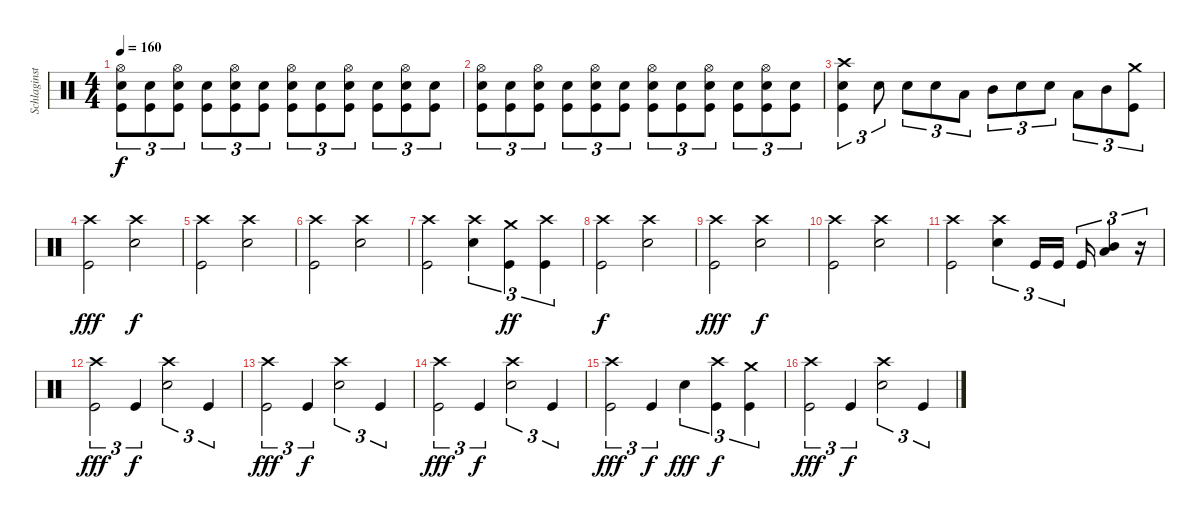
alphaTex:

\track ("Schlaginstrumente - Auswahl" "Schlaginst") {instrument percussion}
\staff {score}
\articulation defaults
\ts (4 4)
\tempo 160
\clef neutral
\ks c
("Hi-Hat (open)" "Electric Snare (hit)" "Kick (hit)").8{tu (3 2) dy f} ("Electric Snare (hit)" "Kick (hit)").8{tu (3 2)} ("Hi-Hat (open)" "Electric Snare (hit)" "Kick (hit)").8{tu (3 2)} ("Electric Snare (hit)" "Kick (hit)").8{tu (3 2)} ("Hi-Hat (open)" "Electric Snare (hit)" "Kick (hit)").8{tu (3 2)} ("Electric Snare (hit)" "Kick (hit)").8{tu (3 2)} ("Hi-Hat (open)" "Electric Snare (hit)" "Kick (hit)").8{tu (3 2)} ("Electric Snare (hit)" "Kick (hit)").8{tu (3 2)} ("Hi-Hat (open)" "Electric Snare (hit)" "Kick (hit)").8{tu (3 2)} ("Electric Snare (hit)" "Kick (hit)").8{tu (3 2)} ("Hi-Hat (open)" "Electric Snare (hit)" "Kick (hit)").8{tu (3 2)} ("Electric Snare (hit)" "Kick (hit)").8{tu (3 2)} |
("Hi-Hat (open)" "Electric Snare (hit)" "Kick (hit)").8{tu (3 2)} ("Electric Snare (hit)" "Kick (hit)").8{tu (3 2)} ("Hi-Hat (open)" "Electric Snare (hit)" "Kick (hit)").8{tu (3 2)} ("Electric Snare (hit)" "Kick (hit)").8{tu (3 2)} ("Hi-Hat (open)" "Electric Snare (hit)" "Kick (hit)").8{tu (3 2)} ("Electric Snare (hit)" "Kick (hit)").8{tu (3 2)} ("Hi-Hat (open)" "Electric Snare (hit)" "Kick (hit)").8{tu (3 2)} ("Electric Snare (hit)" "Kick (hit)").8{tu (3 2)} ("Hi-Hat (open)" "Electric Snare (hit)" "Kick (hit)").8{tu (3 2)} ("Electric Snare (hit)" "Kick (hit)").8{tu (3 2)} ("Hi-Hat (open)" "Electric Snare (hit)" "Kick (hit)").8{tu (3 2)} ("Electric Snare (hit)" "Kick (hit)").8{tu (3 2)} |
("Crash high (hit)" "Kick (hit)" "Electric Snare (hit)").4{tu (3 2)} "Electric Snare (hit)".8{tu (3 2)} "Electric Snare (hit)".8{tu (3 2)} "Electric Snare (hit)".8{tu (3 2)} "Low Tom (hit)".8{tu (3 2)} "Mid Tom (hit)".8{tu (3 2)} "Electric Snare (hit)".8{tu (3 2)} "Electric Snare (hit)".8{tu (3 2)} "Low Tom (hit)".8{tu (3 2)} "Mid Tom (hit)".8{tu (3 2)} ("Crash medium (hit)" "Kick (hit)").8{tu (3 2)} |
("Crash high (hit)" "Kick (hit)").2{dy fff} ("Crash high (hit)" "Electric Snare (hit)").2{dy f} |
("Crash high (hit)" "Kick (hit)").2 ("Crash high (hit)" "Electric Snare (hit)").2 |
("Crash high (hit)" "Kick (hit)").2 ("Crash high (hit)" "Electric Snare (hit)").2 |
("Crash high (hit)" "Kick (hit)").2 ("Crash high (hit)" "Electric Snare (hit)").4{tu (3 2)} ("Crash medium (hit)" "Kick (hit)").4{tu (3 2) dy ff} ("Crash high (hit)" "Kick (hit)").4{tu (3 2)} |
("Crash high (hit)" "Kick (hit)").2{dy f} ("Crash high (hit)" "Electric Snare (hit)").2 |
("Crash high (hit)" "Kick (hit)").2{dy fff} ("Crash high (hit)" "Electric Snare (hit)").2{dy f} |
("Crash high (hit)" "Kick (hit)").2 ("Crash high (hit)" "Electric Snare (hit)").2 |
("Crash high (hit)" "Kick (hit)").2 ("Crash high (hit)" "Electric Snare (hit)").4{tu (3 2)} "Kick (hit)".16{tu (3 2)} "Kick (hit)".16{tu (3 2)} "Kick (hit)".16{tu (3 2)} ("Mid Tom (hit)" "Low Tom (hit)").4{tu (3 2)} r.16{tu (3 2)} |
("Crash high (hit)" "Kick (hit)").2{tu (3 2) dy fff} "Kick (hit)".4{tu (3 2) dy f} ("Crash high (hit)" "Electric Snare (hit)").2{tu (3 2)} "Kick (hit)".4{tu (3 2)} |
("Crash high (hit)" "Kick (hit)").2{tu (3 2) dy fff} "Kick (hit)".4{tu (3 2) dy f} ("Crash high (hit)" "Electric Snare (hit)").2{tu (3 2)} "Kick (hit)".4{tu (3 2)} |
("Crash high (hit)" "Kick (hit)").2{tu (3 2) dy fff} "Kick (hit)".4{tu (3 2) dy f} ("Crash high (hit)" "Electric Snare (hit)").2{tu (3 2)} "Kick (hit)".4{tu (3 2)} |
("Crash high (hit)" "Kick (hit)").2{tu (3 2) dy fff} "Kick (hit)".4{tu (3 2) dy f} "Electric Snare (hit)".4{tu (3 2) dy fff} ("Crash high (hit)" "Kick (hit)").4{tu (3 2) dy f} ("Crash medium (hit)" "Kick (hit)").4{tu (3 2)} |
("Crash high (hit)" "Kick (hit)").2{tu (3 2) dy fff} "Kick (hit)".4{tu (3 2) dy f} ("Crash high (hit)" "Electric Snare (hit)").2{tu (3 2)} "Kick (hit)".4{tu (3 2)}
